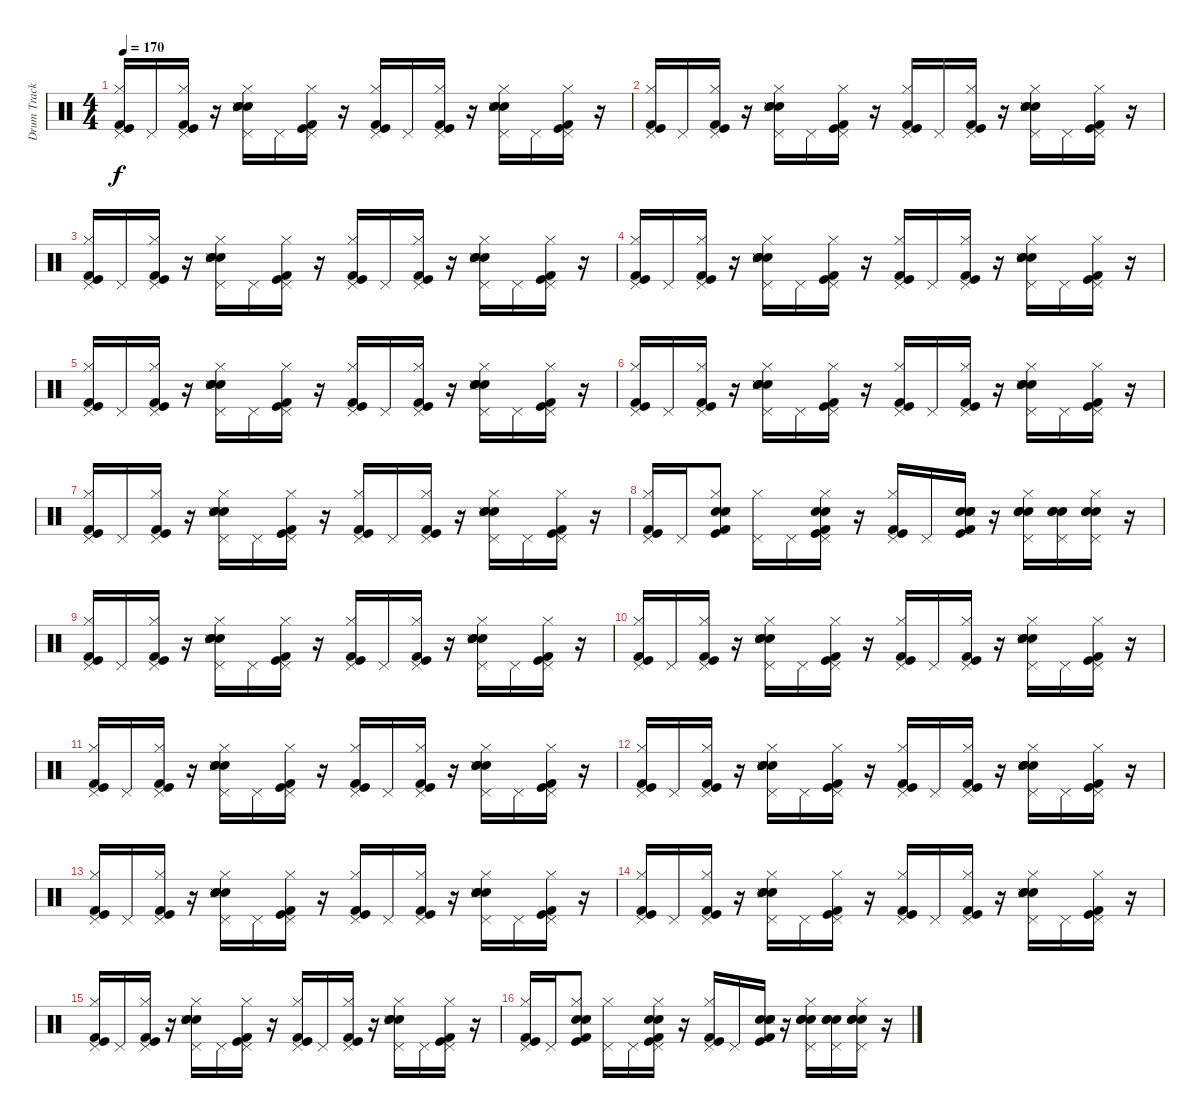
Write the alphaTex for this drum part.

\track ("Drum Track" "Drum Track") {instrument percussion}
\staff {score}
\articulation defaults
\ts (4 4)
\tempo 170
\clef neutral
\ks c
("Kick (hit)" "Kick (hit) 2" "Hi-Hat (closed)" "Pedal Hi-Hat (hit)").16{dy f} "Pedal Hi-Hat (hit)".16 ("Kick (hit)" "Kick (hit) 2" "Hi-Hat (closed)" "Pedal Hi-Hat (hit)").16 r.16 ("Snare (hit) 2" "Electric Snare (hit)" "Snare (side stick) 3" "Hand Clap (hit)" "Hi-Hat (closed)" "Pedal Hi-Hat (hit)").16 "Pedal Hi-Hat (hit)".16 ("Kick (hit) 2" "Kick (hit)" "Hi-Hat (closed)" "Pedal Hi-Hat (hit)").16 r.16 ("Kick (hit)" "Kick (hit) 2" "Hi-Hat (closed)" "Pedal Hi-Hat (hit)").16 "Pedal Hi-Hat (hit)".16 ("Kick (hit)" "Kick (hit) 2" "Hi-Hat (closed)" "Pedal Hi-Hat (hit)").16 r.16 ("Snare (hit) 2" "Electric Snare (hit)" "Snare (side stick) 3" "Hand Clap (hit)" "Hi-Hat (closed)" "Pedal Hi-Hat (hit)").16 "Pedal Hi-Hat (hit)".16 ("Kick (hit) 2" "Kick (hit)" "Hi-Hat (closed)" "Pedal Hi-Hat (hit)").16 r.16 |
("Kick (hit)" "Kick (hit) 2" "Hi-Hat (closed)" "Pedal Hi-Hat (hit)").16 "Pedal Hi-Hat (hit)".16 ("Kick (hit)" "Kick (hit) 2" "Hi-Hat (closed)" "Pedal Hi-Hat (hit)").16 r.16 ("Snare (hit) 2" "Electric Snare (hit)" "Snare (side stick) 3" "Hand Clap (hit)" "Hi-Hat (closed)" "Pedal Hi-Hat (hit)").16 "Pedal Hi-Hat (hit)".16 ("Kick (hit) 2" "Kick (hit)" "Hi-Hat (closed)" "Pedal Hi-Hat (hit)").16 r.16 ("Kick (hit)" "Kick (hit) 2" "Hi-Hat (closed)" "Pedal Hi-Hat (hit)").16 "Pedal Hi-Hat (hit)".16 ("Kick (hit)" "Kick (hit) 2" "Hi-Hat (closed)" "Pedal Hi-Hat (hit)").16 r.16 ("Snare (hit) 2" "Electric Snare (hit)" "Snare (side stick) 3" "Hand Clap (hit)" "Hi-Hat (closed)" "Pedal Hi-Hat (hit)").16 "Pedal Hi-Hat (hit)".16 ("Kick (hit) 2" "Kick (hit)" "Hi-Hat (closed)" "Pedal Hi-Hat (hit)").16 r.16 |
("Kick (hit)" "Kick (hit) 2" "Hi-Hat (closed)" "Pedal Hi-Hat (hit)").16 "Pedal Hi-Hat (hit)".16 ("Kick (hit)" "Kick (hit) 2" "Hi-Hat (closed)" "Pedal Hi-Hat (hit)").16 r.16 ("Snare (hit) 2" "Electric Snare (hit)" "Snare (side stick) 3" "Hand Clap (hit)" "Hi-Hat (closed)" "Pedal Hi-Hat (hit)").16 "Pedal Hi-Hat (hit)".16 ("Kick (hit) 2" "Kick (hit)" "Hi-Hat (closed)" "Pedal Hi-Hat (hit)").16 r.16 ("Kick (hit)" "Kick (hit) 2" "Hi-Hat (closed)" "Pedal Hi-Hat (hit)").16 "Pedal Hi-Hat (hit)".16 ("Kick (hit)" "Kick (hit) 2" "Hi-Hat (closed)" "Pedal Hi-Hat (hit)").16 r.16 ("Snare (hit) 2" "Electric Snare (hit)" "Snare (side stick) 3" "Hand Clap (hit)" "Hi-Hat (closed)" "Pedal Hi-Hat (hit)").16 "Pedal Hi-Hat (hit)".16 ("Kick (hit) 2" "Kick (hit)" "Hi-Hat (closed)" "Pedal Hi-Hat (hit)").16 r.16 |
("Kick (hit)" "Kick (hit) 2" "Hi-Hat (closed)" "Pedal Hi-Hat (hit)").16 "Pedal Hi-Hat (hit)".16 ("Kick (hit)" "Kick (hit) 2" "Hi-Hat (closed)" "Pedal Hi-Hat (hit)").16 r.16 ("Snare (hit) 2" "Electric Snare (hit)" "Snare (side stick) 3" "Hand Clap (hit)" "Hi-Hat (closed)" "Pedal Hi-Hat (hit)").16 "Pedal Hi-Hat (hit)".16 ("Kick (hit) 2" "Kick (hit)" "Hi-Hat (closed)" "Pedal Hi-Hat (hit)").16 r.16 ("Kick (hit)" "Kick (hit) 2" "Hi-Hat (closed)" "Pedal Hi-Hat (hit)").16 "Pedal Hi-Hat (hit)".16 ("Kick (hit)" "Kick (hit) 2" "Hi-Hat (closed)" "Pedal Hi-Hat (hit)").16 r.16 ("Snare (hit) 2" "Electric Snare (hit)" "Snare (side stick) 3" "Hand Clap (hit)" "Hi-Hat (closed)" "Pedal Hi-Hat (hit)").16 "Pedal Hi-Hat (hit)".16 ("Kick (hit) 2" "Kick (hit)" "Hi-Hat (closed)" "Pedal Hi-Hat (hit)").16 r.16 |
("Kick (hit)" "Kick (hit) 2" "Hi-Hat (closed)" "Pedal Hi-Hat (hit)").16 "Pedal Hi-Hat (hit)".16 ("Kick (hit)" "Kick (hit) 2" "Hi-Hat (closed)" "Pedal Hi-Hat (hit)").16 r.16 ("Snare (hit) 2" "Electric Snare (hit)" "Snare (side stick) 3" "Hand Clap (hit)" "Hi-Hat (closed)" "Pedal Hi-Hat (hit)").16 "Pedal Hi-Hat (hit)".16 ("Kick (hit) 2" "Kick (hit)" "Hi-Hat (closed)" "Pedal Hi-Hat (hit)").16 r.16 ("Kick (hit)" "Kick (hit) 2" "Hi-Hat (closed)" "Pedal Hi-Hat (hit)").16 "Pedal Hi-Hat (hit)".16 ("Kick (hit)" "Kick (hit) 2" "Hi-Hat (closed)" "Pedal Hi-Hat (hit)").16 r.16 ("Snare (hit) 2" "Electric Snare (hit)" "Snare (side stick) 3" "Hand Clap (hit)" "Hi-Hat (closed)" "Pedal Hi-Hat (hit)").16 "Pedal Hi-Hat (hit)".16 ("Kick (hit) 2" "Kick (hit)" "Hi-Hat (closed)" "Pedal Hi-Hat (hit)").16 r.16 |
("Kick (hit)" "Kick (hit) 2" "Hi-Hat (closed)" "Pedal Hi-Hat (hit)").16 "Pedal Hi-Hat (hit)".16 ("Kick (hit)" "Kick (hit) 2" "Hi-Hat (closed)" "Pedal Hi-Hat (hit)").16 r.16 ("Snare (hit) 2" "Electric Snare (hit)" "Snare (side stick) 3" "Hand Clap (hit)" "Hi-Hat (closed)" "Pedal Hi-Hat (hit)").16 "Pedal Hi-Hat (hit)".16 ("Kick (hit) 2" "Kick (hit)" "Hi-Hat (closed)" "Pedal Hi-Hat (hit)").16 r.16 ("Kick (hit)" "Kick (hit) 2" "Hi-Hat (closed)" "Pedal Hi-Hat (hit)").16 "Pedal Hi-Hat (hit)".16 ("Kick (hit)" "Kick (hit) 2" "Hi-Hat (closed)" "Pedal Hi-Hat (hit)").16 r.16 ("Snare (hit) 2" "Electric Snare (hit)" "Snare (side stick) 3" "Hand Clap (hit)" "Hi-Hat (closed)" "Pedal Hi-Hat (hit)").16 "Pedal Hi-Hat (hit)".16 ("Kick (hit) 2" "Kick (hit)" "Hi-Hat (closed)" "Pedal Hi-Hat (hit)").16 r.16 |
("Kick (hit)" "Kick (hit) 2" "Hi-Hat (closed)" "Pedal Hi-Hat (hit)").16 "Pedal Hi-Hat (hit)".16 ("Kick (hit)" "Kick (hit) 2" "Hi-Hat (closed)" "Pedal Hi-Hat (hit)").16 r.16 ("Snare (hit) 2" "Electric Snare (hit)" "Snare (side stick) 3" "Hand Clap (hit)" "Hi-Hat (closed)" "Pedal Hi-Hat (hit)").16 "Pedal Hi-Hat (hit)".16 ("Kick (hit) 2" "Kick (hit)" "Hi-Hat (closed)" "Pedal Hi-Hat (hit)").16 r.16 ("Kick (hit)" "Kick (hit) 2" "Hi-Hat (closed)" "Pedal Hi-Hat (hit)").16 "Pedal Hi-Hat (hit)".16 ("Kick (hit)" "Kick (hit) 2" "Hi-Hat (closed)" "Pedal Hi-Hat (hit)").16 r.16 ("Snare (hit) 2" "Electric Snare (hit)" "Snare (side stick) 3" "Hand Clap (hit)" "Hi-Hat (closed)" "Pedal Hi-Hat (hit)").16 "Pedal Hi-Hat (hit)".16 ("Kick (hit) 2" "Kick (hit)" "Hi-Hat (closed)" "Pedal Hi-Hat (hit)").16 r.16 |
("Kick (hit)" "Kick (hit) 2" "Hi-Hat (closed)" "Pedal Hi-Hat (hit)").16 "Pedal Hi-Hat (hit)".16 ("Snare (hit) 2" "Snare (side stick) 3" "Hand Clap (hit)" "Kick (hit)" "Kick (hit) 2" "Hi-Hat (closed)").8 ("Hi-Hat (closed)" "Pedal Hi-Hat (hit)").16 "Pedal Hi-Hat (hit)".16 ("Kick (hit) 2" "Kick (hit)" "Hi-Hat (closed)" "Pedal Hi-Hat (hit)" "Electric Snare (hit)" "Snare (hit) 2").16 r.16 ("Kick (hit)" "Kick (hit) 2" "Hi-Hat (closed)" "Pedal Hi-Hat (hit)").16 "Pedal Hi-Hat (hit)".16 ("Hand Clap (hit)" "Snare (side stick) 3" "Electric Snare (hit)" "Snare (hit) 2" "Kick (hit)" "Kick (hit) 2").16 r.16 ("Hi-Hat (closed)" "Pedal Hi-Hat (hit)" "Electric Snare (hit)" "Hand Clap (hit)" "Snare (hit) 2").16 ("Pedal Hi-Hat (hit)" "Electric Snare (hit)" "Hand Clap (hit)" "Snare (hit) 2").16 ("Hi-Hat (closed)" "Pedal Hi-Hat (hit)" "Electric Snare (hit)" "Hand Clap (hit)" "Snare (hit) 2").16 r.16 |
("Kick (hit)" "Kick (hit) 2" "Hi-Hat (closed)" "Pedal Hi-Hat (hit)").16 "Pedal Hi-Hat (hit)".16 ("Kick (hit)" "Kick (hit) 2" "Hi-Hat (closed)" "Pedal Hi-Hat (hit)").16 r.16 ("Snare (hit) 2" "Electric Snare (hit)" "Snare (side stick) 3" "Hand Clap (hit)" "Hi-Hat (closed)" "Pedal Hi-Hat (hit)").16 "Pedal Hi-Hat (hit)".16 ("Kick (hit) 2" "Kick (hit)" "Hi-Hat (closed)" "Pedal Hi-Hat (hit)").16 r.16 ("Kick (hit)" "Kick (hit) 2" "Hi-Hat (closed)" "Pedal Hi-Hat (hit)").16 "Pedal Hi-Hat (hit)".16 ("Kick (hit)" "Kick (hit) 2" "Hi-Hat (closed)" "Pedal Hi-Hat (hit)").16 r.16 ("Snare (hit) 2" "Electric Snare (hit)" "Snare (side stick) 3" "Hand Clap (hit)" "Hi-Hat (closed)" "Pedal Hi-Hat (hit)").16 "Pedal Hi-Hat (hit)".16 ("Kick (hit) 2" "Kick (hit)" "Hi-Hat (closed)" "Pedal Hi-Hat (hit)").16 r.16 |
("Kick (hit)" "Kick (hit) 2" "Hi-Hat (closed)" "Pedal Hi-Hat (hit)").16 "Pedal Hi-Hat (hit)".16 ("Kick (hit)" "Kick (hit) 2" "Hi-Hat (closed)" "Pedal Hi-Hat (hit)").16 r.16 ("Snare (hit) 2" "Electric Snare (hit)" "Snare (side stick) 3" "Hand Clap (hit)" "Hi-Hat (closed)" "Pedal Hi-Hat (hit)").16 "Pedal Hi-Hat (hit)".16 ("Kick (hit) 2" "Kick (hit)" "Hi-Hat (closed)" "Pedal Hi-Hat (hit)").16 r.16 ("Kick (hit)" "Kick (hit) 2" "Hi-Hat (closed)" "Pedal Hi-Hat (hit)").16 "Pedal Hi-Hat (hit)".16 ("Kick (hit)" "Kick (hit) 2" "Hi-Hat (closed)" "Pedal Hi-Hat (hit)").16 r.16 ("Snare (hit) 2" "Electric Snare (hit)" "Snare (side stick) 3" "Hand Clap (hit)" "Hi-Hat (closed)" "Pedal Hi-Hat (hit)").16 "Pedal Hi-Hat (hit)".16 ("Kick (hit) 2" "Kick (hit)" "Hi-Hat (closed)" "Pedal Hi-Hat (hit)").16 r.16 |
("Kick (hit)" "Kick (hit) 2" "Hi-Hat (closed)" "Pedal Hi-Hat (hit)").16 "Pedal Hi-Hat (hit)".16 ("Kick (hit)" "Kick (hit) 2" "Hi-Hat (closed)" "Pedal Hi-Hat (hit)").16 r.16 ("Snare (hit) 2" "Electric Snare (hit)" "Snare (side stick) 3" "Hand Clap (hit)" "Hi-Hat (closed)" "Pedal Hi-Hat (hit)").16 "Pedal Hi-Hat (hit)".16 ("Kick (hit) 2" "Kick (hit)" "Hi-Hat (closed)" "Pedal Hi-Hat (hit)").16 r.16 ("Kick (hit)" "Kick (hit) 2" "Hi-Hat (closed)" "Pedal Hi-Hat (hit)").16 "Pedal Hi-Hat (hit)".16 ("Kick (hit)" "Kick (hit) 2" "Hi-Hat (closed)" "Pedal Hi-Hat (hit)").16 r.16 ("Snare (hit) 2" "Electric Snare (hit)" "Snare (side stick) 3" "Hand Clap (hit)" "Hi-Hat (closed)" "Pedal Hi-Hat (hit)").16 "Pedal Hi-Hat (hit)".16 ("Kick (hit) 2" "Kick (hit)" "Hi-Hat (closed)" "Pedal Hi-Hat (hit)").16 r.16 |
("Kick (hit)" "Kick (hit) 2" "Hi-Hat (closed)" "Pedal Hi-Hat (hit)").16 "Pedal Hi-Hat (hit)".16 ("Kick (hit)" "Kick (hit) 2" "Hi-Hat (closed)" "Pedal Hi-Hat (hit)").16 r.16 ("Snare (hit) 2" "Electric Snare (hit)" "Snare (side stick) 3" "Hand Clap (hit)" "Hi-Hat (closed)" "Pedal Hi-Hat (hit)").16 "Pedal Hi-Hat (hit)".16 ("Kick (hit) 2" "Kick (hit)" "Hi-Hat (closed)" "Pedal Hi-Hat (hit)").16 r.16 ("Kick (hit)" "Kick (hit) 2" "Hi-Hat (closed)" "Pedal Hi-Hat (hit)").16 "Pedal Hi-Hat (hit)".16 ("Kick (hit)" "Kick (hit) 2" "Hi-Hat (closed)" "Pedal Hi-Hat (hit)").16 r.16 ("Snare (hit) 2" "Electric Snare (hit)" "Snare (side stick) 3" "Hand Clap (hit)" "Hi-Hat (closed)" "Pedal Hi-Hat (hit)").16 "Pedal Hi-Hat (hit)".16 ("Kick (hit) 2" "Kick (hit)" "Hi-Hat (closed)" "Pedal Hi-Hat (hit)").16 r.16 |
("Kick (hit)" "Kick (hit) 2" "Hi-Hat (closed)" "Pedal Hi-Hat (hit)").16 "Pedal Hi-Hat (hit)".16 ("Kick (hit)" "Kick (hit) 2" "Hi-Hat (closed)" "Pedal Hi-Hat (hit)").16 r.16 ("Snare (hit) 2" "Electric Snare (hit)" "Snare (side stick) 3" "Hand Clap (hit)" "Hi-Hat (closed)" "Pedal Hi-Hat (hit)").16 "Pedal Hi-Hat (hit)".16 ("Kick (hit) 2" "Kick (hit)" "Hi-Hat (closed)" "Pedal Hi-Hat (hit)").16 r.16 ("Kick (hit)" "Kick (hit) 2" "Hi-Hat (closed)" "Pedal Hi-Hat (hit)").16 "Pedal Hi-Hat (hit)".16 ("Kick (hit)" "Kick (hit) 2" "Hi-Hat (closed)" "Pedal Hi-Hat (hit)").16 r.16 ("Snare (hit) 2" "Electric Snare (hit)" "Snare (side stick) 3" "Hand Clap (hit)" "Hi-Hat (closed)" "Pedal Hi-Hat (hit)").16 "Pedal Hi-Hat (hit)".16 ("Kick (hit) 2" "Kick (hit)" "Hi-Hat (closed)" "Pedal Hi-Hat (hit)").16 r.16 |
("Kick (hit)" "Kick (hit) 2" "Hi-Hat (closed)" "Pedal Hi-Hat (hit)").16 "Pedal Hi-Hat (hit)".16 ("Kick (hit)" "Kick (hit) 2" "Hi-Hat (closed)" "Pedal Hi-Hat (hit)").16 r.16 ("Snare (hit) 2" "Electric Snare (hit)" "Snare (side stick) 3" "Hand Clap (hit)" "Hi-Hat (closed)" "Pedal Hi-Hat (hit)").16 "Pedal Hi-Hat (hit)".16 ("Kick (hit) 2" "Kick (hit)" "Hi-Hat (closed)" "Pedal Hi-Hat (hit)").16 r.16 ("Kick (hit)" "Kick (hit) 2" "Hi-Hat (closed)" "Pedal Hi-Hat (hit)").16 "Pedal Hi-Hat (hit)".16 ("Kick (hit)" "Kick (hit) 2" "Hi-Hat (closed)" "Pedal Hi-Hat (hit)").16 r.16 ("Snare (hit) 2" "Electric Snare (hit)" "Snare (side stick) 3" "Hand Clap (hit)" "Hi-Hat (closed)" "Pedal Hi-Hat (hit)").16 "Pedal Hi-Hat (hit)".16 ("Kick (hit) 2" "Kick (hit)" "Hi-Hat (closed)" "Pedal Hi-Hat (hit)").16 r.16 |
("Kick (hit)" "Kick (hit) 2" "Hi-Hat (closed)" "Pedal Hi-Hat (hit)").16 "Pedal Hi-Hat (hit)".16 ("Kick (hit)" "Kick (hit) 2" "Hi-Hat (closed)" "Pedal Hi-Hat (hit)").16 r.16 ("Snare (hit) 2" "Electric Snare (hit)" "Snare (side stick) 3" "Hand Clap (hit)" "Hi-Hat (closed)" "Pedal Hi-Hat (hit)").16 "Pedal Hi-Hat (hit)".16 ("Kick (hit) 2" "Kick (hit)" "Hi-Hat (closed)" "Pedal Hi-Hat (hit)").16 r.16 ("Kick (hit)" "Kick (hit) 2" "Hi-Hat (closed)" "Pedal Hi-Hat (hit)").16 "Pedal Hi-Hat (hit)".16 ("Kick (hit)" "Kick (hit) 2" "Hi-Hat (closed)" "Pedal Hi-Hat (hit)").16 r.16 ("Snare (hit) 2" "Electric Snare (hit)" "Snare (side stick) 3" "Hand Clap (hit)" "Hi-Hat (closed)" "Pedal Hi-Hat (hit)").16 "Pedal Hi-Hat (hit)".16 ("Kick (hit) 2" "Kick (hit)" "Hi-Hat (closed)" "Pedal Hi-Hat (hit)").16 r.16 |
("Kick (hit)" "Kick (hit) 2" "Hi-Hat (closed)" "Pedal Hi-Hat (hit)").16 "Pedal Hi-Hat (hit)".16 ("Snare (hit) 2" "Snare (side stick) 3" "Hand Clap (hit)" "Kick (hit)" "Kick (hit) 2" "Hi-Hat (closed)").8 ("Hi-Hat (closed)" "Pedal Hi-Hat (hit)").16 "Pedal Hi-Hat (hit)".16 ("Kick (hit) 2" "Kick (hit)" "Hi-Hat (closed)" "Pedal Hi-Hat (hit)" "Electric Snare (hit)" "Snare (hit) 2").16 r.16 ("Kick (hit)" "Kick (hit) 2" "Hi-Hat (closed)" "Pedal Hi-Hat (hit)").16 "Pedal Hi-Hat (hit)".16 ("Hand Clap (hit)" "Snare (side stick) 3" "Electric Snare (hit)" "Snare (hit) 2" "Kick (hit)" "Kick (hit) 2").16 r.16 ("Hi-Hat (closed)" "Pedal Hi-Hat (hit)" "Electric Snare (hit)" "Hand Clap (hit)" "Snare (hit) 2").16 ("Pedal Hi-Hat (hit)" "Electric Snare (hit)" "Hand Clap (hit)" "Snare (hit) 2").16 ("Hi-Hat (closed)" "Pedal Hi-Hat (hit)" "Electric Snare (hit)" "Hand Clap (hit)" "Snare (hit) 2").16 r.16
